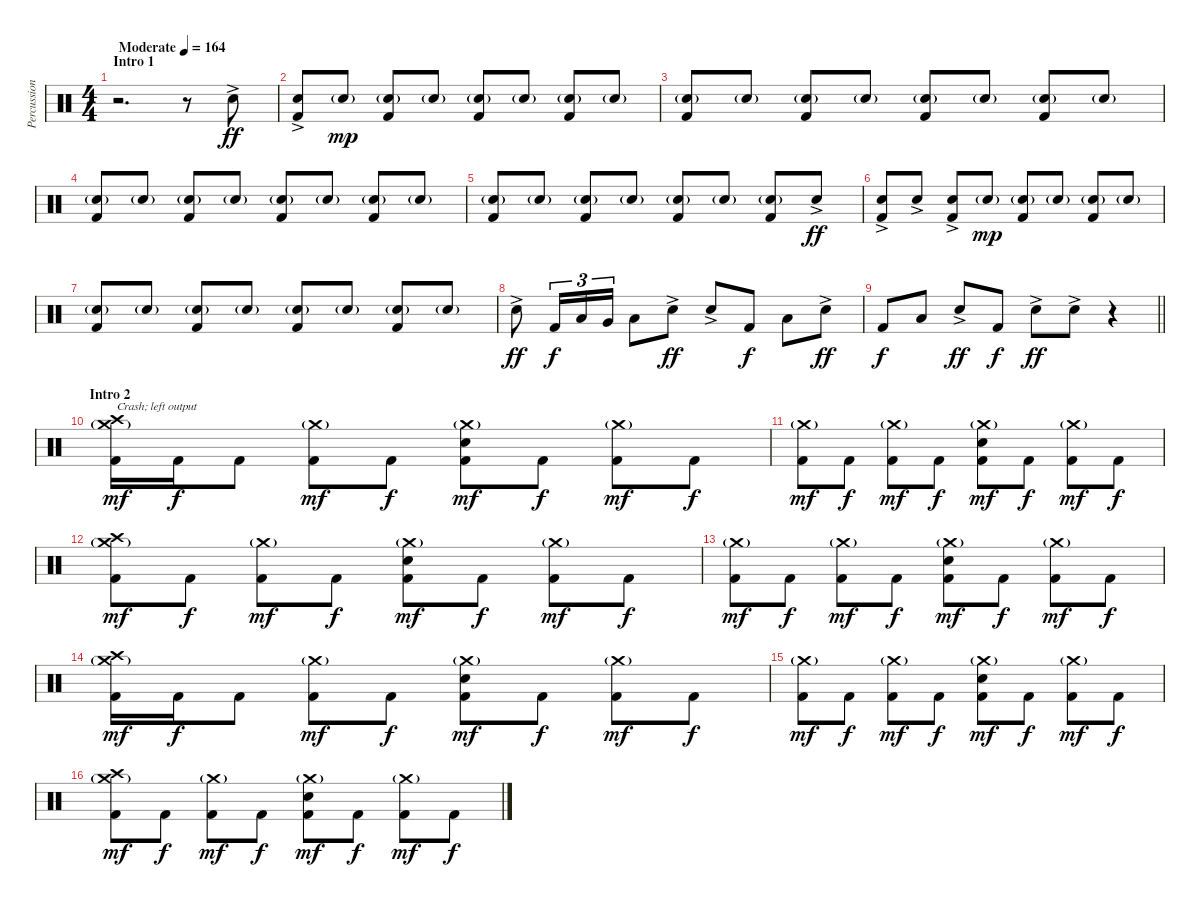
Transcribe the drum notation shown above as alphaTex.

\track ("Percussion - Michael Ambrose" "Percussion") {instrument percussion}
\staff {score}
\articulation defaults
\ts (4 4)
\section ("" "Intro 1")
\tempo (164 "Moderate")
\clef neutral
\ks c
r.2{d dy ff} r.8 "Electric Snare (hit)"{ac}.8 |
("Electric Snare (hit)"{ac} "Kick (hit) 2").8 "Electric Snare (hit)"{g}.8{dy mp} ("Electric Snare (hit)"{g} "Kick (hit) 2").8 "Electric Snare (hit)"{g}.8 ("Electric Snare (hit)"{g} "Kick (hit) 2").8 "Electric Snare (hit)"{g}.8 ("Electric Snare (hit)"{g} "Kick (hit) 2").8 "Electric Snare (hit)"{g}.8 |
("Electric Snare (hit)"{g} "Kick (hit) 2").8 "Electric Snare (hit)"{g}.8 ("Electric Snare (hit)"{g} "Kick (hit) 2").8 "Electric Snare (hit)"{g}.8 ("Electric Snare (hit)"{g} "Kick (hit) 2").8 "Electric Snare (hit)"{g}.8 ("Electric Snare (hit)"{g} "Kick (hit) 2").8 "Electric Snare (hit)"{g}.8 |
("Electric Snare (hit)"{g} "Kick (hit) 2").8 "Electric Snare (hit)"{g}.8 ("Electric Snare (hit)"{g} "Kick (hit) 2").8 "Electric Snare (hit)"{g}.8 ("Electric Snare (hit)"{g} "Kick (hit) 2").8 "Electric Snare (hit)"{g}.8 ("Electric Snare (hit)"{g} "Kick (hit) 2").8 "Electric Snare (hit)"{g}.8 |
("Electric Snare (hit)"{g} "Kick (hit) 2").8 "Electric Snare (hit)"{g}.8 ("Electric Snare (hit)"{g} "Kick (hit) 2").8 "Electric Snare (hit)"{g}.8 ("Electric Snare (hit)"{g} "Kick (hit) 2").8 "Electric Snare (hit)"{g}.8 ("Electric Snare (hit)"{g} "Kick (hit) 2").8 "Electric Snare (hit)"{ac}.8{dy ff} |
("Electric Snare (hit)"{ac} "Kick (hit) 2").8 "Electric Snare (hit)"{ac}.8 ("Electric Snare (hit)"{ac} "Kick (hit) 2").8 "Electric Snare (hit)"{g}.8{dy mp} ("Electric Snare (hit)"{g} "Kick (hit) 2").8 "Electric Snare (hit)"{g}.8 ("Electric Snare (hit)"{g} "Kick (hit) 2").8 "Electric Snare (hit)"{g}.8 |
("Electric Snare (hit)"{g} "Kick (hit) 2").8 "Electric Snare (hit)"{g}.8 ("Electric Snare (hit)"{g} "Kick (hit) 2").8 "Electric Snare (hit)"{g}.8 ("Electric Snare (hit)"{g} "Kick (hit) 2").8 "Electric Snare (hit)"{g}.8 ("Electric Snare (hit)"{g} "Kick (hit) 2").8 "Electric Snare (hit)"{g}.8 |
"Electric Snare (hit)"{ac}.8{dy ff} "Kick (hit) 2".16{tu (3 2) dy f} "Low Floor Tom (hit)".16{tu (3 2)} "Very Low Tom (hit)".16{tu (3 2)} "Low Tom (hit)".8 "Electric Snare (hit)"{ac}.8{dy ff} "Electric Snare (hit)"{ac}.8 "Kick (hit) 2".8{dy f} "Low Tom (hit)".8 "Electric Snare (hit)"{ac}.8{dy ff} |
\barLineRight lightlight "Kick (hit) 2".8{dy f} "Low Tom (hit)".8 "Electric Snare (hit)"{ac}.8{dy ff} "Kick (hit) 2".8{dy f} "Electric Snare (hit)"{ac}.8{dy ff} "Electric Snare (hit)"{ac}.8
r.4 |
\section ("" "Intro 2")
("Crash high (hit)" "Crash medium (hit)"{g} "Kick (hit) 2").16{txt "Crash; left output" dy mf} "Kick (hit) 2".16{dy f} "Kick (hit) 2".8 ("Crash medium (hit)"{g} "Kick (hit) 2").8{dy mf} "Kick (hit) 2".8{dy f} ("Crash medium (hit)"{g} "Electric Snare (hit)" "Kick (hit) 2").8{dy mf} "Kick (hit) 2".8{dy f} ("Crash medium (hit)"{g} "Kick (hit) 2").8{dy mf} "Kick (hit) 2".8{dy f} |
("Crash medium (hit)"{g} "Kick (hit) 2").8{dy mf} "Kick (hit) 2".8{dy f} ("Crash medium (hit)"{g} "Kick (hit) 2").8{dy mf} "Kick (hit) 2".8{dy f} ("Crash medium (hit)"{g} "Electric Snare (hit)" "Kick (hit) 2").8{dy mf} "Kick (hit) 2".8{dy f} ("Crash medium (hit)"{g} "Kick (hit) 2").8{dy mf} "Kick (hit) 2".8{dy f} |
("Crash high (hit)" "Crash medium (hit)"{g} "Kick (hit) 2").8{dy mf} "Kick (hit) 2".8{dy f} ("Crash medium (hit)"{g} "Kick (hit) 2").8{dy mf} "Kick (hit) 2".8{dy f} ("Crash medium (hit)"{g} "Electric Snare (hit)" "Kick (hit) 2").8{dy mf} "Kick (hit) 2".8{dy f} ("Crash medium (hit)"{g} "Kick (hit) 2").8{dy mf} "Kick (hit) 2".8{dy f} |
("Crash medium (hit)"{g} "Kick (hit) 2").8{dy mf} "Kick (hit) 2".8{dy f} ("Crash medium (hit)"{g} "Kick (hit) 2").8{dy mf} "Kick (hit) 2".8{dy f} ("Crash medium (hit)"{g} "Electric Snare (hit)" "Kick (hit) 2").8{dy mf} "Kick (hit) 2".8{dy f} ("Crash medium (hit)"{g} "Kick (hit) 2").8{dy mf} "Kick (hit) 2".8{dy f} |
("Crash high (hit)" "Crash medium (hit)"{g} "Kick (hit) 2").16{dy mf} "Kick (hit) 2".16{dy f} "Kick (hit) 2".8 ("Crash medium (hit)"{g} "Kick (hit) 2").8{dy mf} "Kick (hit) 2".8{dy f} ("Crash medium (hit)"{g} "Electric Snare (hit)" "Kick (hit) 2").8{dy mf} "Kick (hit) 2".8{dy f} ("Crash medium (hit)"{g} "Kick (hit) 2").8{dy mf} "Kick (hit) 2".8{dy f} |
("Crash medium (hit)"{g} "Kick (hit) 2").8{dy mf} "Kick (hit) 2".8{dy f} ("Crash medium (hit)"{g} "Kick (hit) 2").8{dy mf} "Kick (hit) 2".8{dy f} ("Crash medium (hit)"{g} "Electric Snare (hit)" "Kick (hit) 2").8{dy mf} "Kick (hit) 2".8{dy f} ("Crash medium (hit)"{g} "Kick (hit) 2").8{dy mf} "Kick (hit) 2".8{dy f} |
("Crash high (hit)" "Crash medium (hit)"{g} "Kick (hit) 2").8{dy mf} "Kick (hit) 2".8{dy f} ("Crash medium (hit)"{g} "Kick (hit) 2").8{dy mf} "Kick (hit) 2".8{dy f} ("Crash medium (hit)"{g} "Electric Snare (hit)" "Kick (hit) 2").8{dy mf} "Kick (hit) 2".8{dy f} ("Crash medium (hit)"{g} "Kick (hit) 2").8{dy mf} "Kick (hit) 2".8{dy f}
